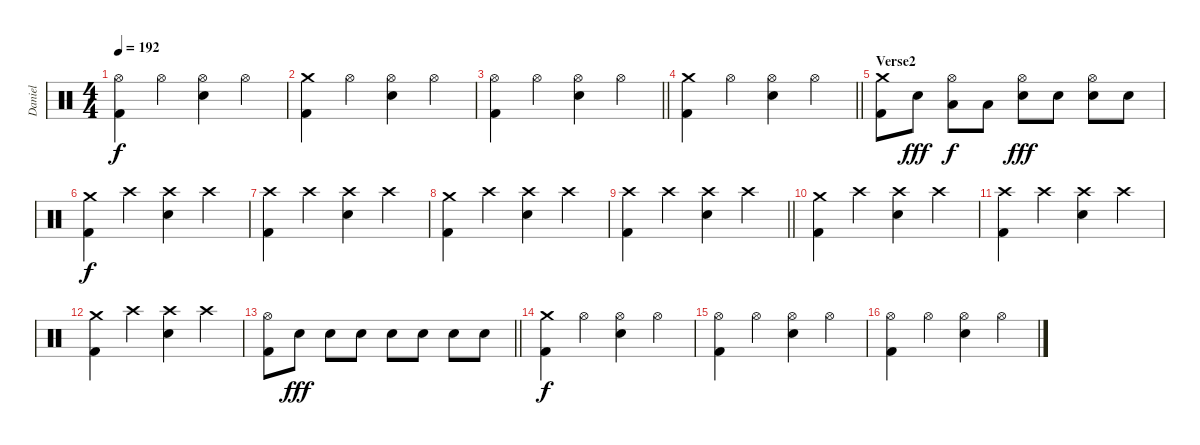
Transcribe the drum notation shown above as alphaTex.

\track ("Daniel" "Daniel") {instrument percussion}
\staff {score}
\articulation defaults
\ts (4 4)
\tempo 192
\clef neutral
\ks c
("Kick (hit) 2" "Hi-Hat (open)").4{dy f} "Hi-Hat (open)".4 ("Electric Snare (hit)" "Hi-Hat (open)").4 "Hi-Hat (open)".4 |
("Kick (hit) 2" "Crash medium (hit)").4 "Hi-Hat (open)".4 ("Electric Snare (hit)" "Hi-Hat (open)").4 "Hi-Hat (open)".4 |
\barLineRight lightlight
("Kick (hit) 2" "Hi-Hat (open)").4 "Hi-Hat (open)".4 ("Electric Snare (hit)" "Hi-Hat (open)").4 "Hi-Hat (open)".4 |
\section ("" "")
\barLineRight lightlight
("Kick (hit) 2" "Crash medium (hit)").4 "Hi-Hat (open)".4 ("Electric Snare (hit)" "Hi-Hat (open)").4 "Hi-Hat (open)".4 |
\section ("" "Verse2")
("Kick (hit) 2" "Crash medium (hit)").8 "Electric Snare (hit)".8{dy fff} ("Low Tom (hit)" "Hi-Hat (open)").8{dy f} "Low Tom (hit)".8 ("Electric Snare (hit)" "Hi-Hat (open)").8{dy fff} "Electric Snare (hit)".8 ("Electric Snare (hit)" "Hi-Hat (open)").8 "Electric Snare (hit)".8 |
("Kick (hit) 2" "Crash medium (hit)").4{dy f} "Crash high (hit)".4 ("Electric Snare (hit)" "Crash high (hit)").4 "Crash high (hit)".4 |
("Kick (hit) 2" "Crash high (hit)").4 "Crash high (hit)".4 ("Electric Snare (hit)" "Crash high (hit)").4 "Crash high (hit)".4 |
("Kick (hit) 2" "Crash medium (hit)").4 "Crash high (hit)".4 ("Electric Snare (hit)" "Crash high (hit)").4 "Crash high (hit)".4 |
\barLineRight lightlight
("Kick (hit) 2" "Crash high (hit)").4 "Crash high (hit)".4 ("Electric Snare (hit)" "Crash high (hit)").4 "Crash high (hit)".4 |
("Kick (hit) 2" "Crash medium (hit)").4 "Crash high (hit)".4 ("Electric Snare (hit)" "Crash high (hit)").4 "Crash high (hit)".4 |
("Kick (hit) 2" "Crash high (hit)").4 "Crash high (hit)".4 ("Electric Snare (hit)" "Crash high (hit)").4 "Crash high (hit)".4 |
("Kick (hit) 2" "Crash medium (hit)").4 "Crash high (hit)".4 ("Electric Snare (hit)" "Crash high (hit)").4 "Crash high (hit)".4 |
\barLineRight lightlight
("Kick (hit) 2" "Hi-Hat (open)").8 "Electric Snare (hit)".8{dy fff} "Electric Snare (hit)".8 "Electric Snare (hit)".8 "Electric Snare (hit)".8 "Electric Snare (hit)".8 "Electric Snare (hit)".8 "Electric Snare (hit)".8 |
("Kick (hit) 2" "Crash medium (hit)").4{dy f} "Hi-Hat (open)".4 ("Electric Snare (hit)" "Hi-Hat (open)").4 "Hi-Hat (open)".4 |
("Kick (hit) 2" "Hi-Hat (open)").4 "Hi-Hat (open)".4 ("Electric Snare (hit)" "Hi-Hat (open)").4 "Hi-Hat (open)".4 |
("Kick (hit) 2" "Hi-Hat (open)").4 "Hi-Hat (open)".4 ("Electric Snare (hit)" "Hi-Hat (open)").4 "Hi-Hat (open)".4
